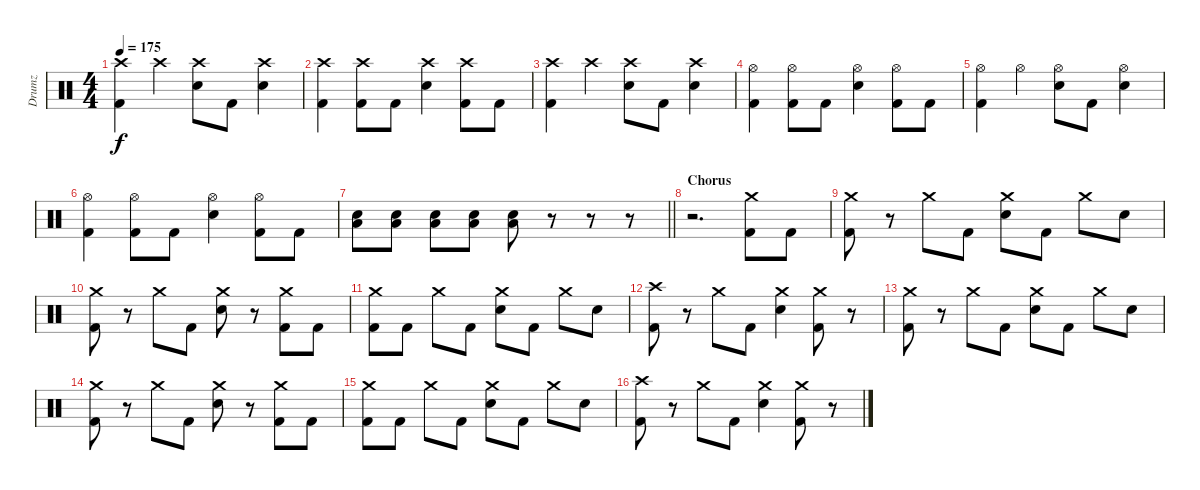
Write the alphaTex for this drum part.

\track ("Drumz" "Drumz") {instrument percussion}
\staff {score}
\articulation defaults
\ts (4 4)
\tempo 175
\clef neutral
\ks c
("Kick (hit) 2" "Crash high (hit)").4{dy f} "Crash high (hit)".4 ("Electric Snare (hit)" "Crash high (hit)").8 "Kick (hit) 2".8 ("Electric Snare (hit)" "Crash high (hit)").4 |
("Kick (hit) 2" "Crash high (hit)").4 ("Kick (hit) 2" "Crash high (hit)").8 "Kick (hit) 2".8 ("Electric Snare (hit)" "Crash high (hit)").4 ("Kick (hit) 2" "Crash high (hit)").8 "Kick (hit) 2".8 |
("Kick (hit) 2" "Crash high (hit)").4 "Crash high (hit)".4 ("Electric Snare (hit)" "Crash high (hit)").8 "Kick (hit) 2".8 ("Electric Snare (hit)" "Crash high (hit)").4 |
("Hi-Hat (open)" "Kick (hit) 2").4 ("Hi-Hat (open)" "Kick (hit) 2").8 "Kick (hit) 2".8 ("Hi-Hat (open)" "Electric Snare (hit)").4 ("Hi-Hat (open)" "Kick (hit) 2").8 "Kick (hit) 2".8 |
("Hi-Hat (open)" "Kick (hit) 2").4 "Hi-Hat (open)".4 ("Hi-Hat (open)" "Snare (hit) 2").8 "Kick (hit) 2".8 ("Hi-Hat (open)" "Snare (hit) 2").4 |
("Hi-Hat (open)" "Kick (hit) 2").4 ("Hi-Hat (open)" "Kick (hit) 2").8 "Kick (hit) 2".8 ("Hi-Hat (open)" "Electric Snare (hit)").4 ("Hi-Hat (open)" "Kick (hit) 2").8 "Kick (hit) 2".8 |
\barLineRight lightlight
("Low Floor Tom (hit)" "Snare (hit) 2").8 ("Low Floor Tom (hit)" "Snare (hit) 2").8 ("Low Floor Tom (hit)" "Snare (hit) 2").8 ("Low Floor Tom (hit)" "Snare (hit) 2").8 ("Low Floor Tom (hit)" "Snare (hit) 2").8 r.8 r.8 r.8 |
\section ("" "Chorus")
r.2{d} ("Crash medium (hit)" "Kick (hit) 2").8 "Kick (hit) 2".8 |
("Crash medium (hit)" "Kick (hit) 2").8 r.8 "Crash medium (hit)".8 "Kick (hit) 2".8 ("Crash medium (hit)" "Snare (hit) 2").8 "Kick (hit) 2".8 "Crash medium (hit)".8 "Snare (hit) 2".8 |
("Crash medium (hit)" "Kick (hit) 2").8 r.8 "Crash medium (hit)".8 "Kick (hit) 2".8 ("Crash medium (hit)" "Snare (hit) 2").8 r.8 ("Crash medium (hit)" "Kick (hit) 2").8 "Kick (hit) 2".8 |
("Crash medium (hit)" "Kick (hit) 2").8 "Kick (hit) 2".8 "Crash medium (hit)".8 "Kick (hit) 2".8 ("Crash medium (hit)" "Snare (hit) 2").8 "Kick (hit) 2".8 "Crash medium (hit)".8 "Snare (hit) 2".8 |
("Kick (hit) 2" "Crash high (hit)").8 r.8 "Crash medium (hit)".8 "Kick (hit) 2".8 ("Crash medium (hit)" "Snare (hit) 2").4 ("Crash medium (hit)" "Kick (hit) 2").8 r.8 |
("Crash medium (hit)" "Kick (hit) 2").8 r.8 "Crash medium (hit)".8 "Kick (hit) 2".8 ("Crash medium (hit)" "Snare (hit) 2").8 "Kick (hit) 2".8 "Crash medium (hit)".8 "Snare (hit) 2".8 |
("Crash medium (hit)" "Kick (hit) 2").8 r.8 "Crash medium (hit)".8 "Kick (hit) 2".8 ("Crash medium (hit)" "Snare (hit) 2").8 r.8 ("Crash medium (hit)" "Kick (hit) 2").8 "Kick (hit) 2".8 |
("Crash medium (hit)" "Kick (hit) 2").8 "Kick (hit) 2".8 "Crash medium (hit)".8 "Kick (hit) 2".8 ("Crash medium (hit)" "Snare (hit) 2").8 "Kick (hit) 2".8 "Crash medium (hit)".8 "Snare (hit) 2".8 |
("Kick (hit) 2" "Crash high (hit)").8 r.8 "Crash medium (hit)".8 "Kick (hit) 2".8 ("Crash medium (hit)" "Snare (hit) 2").4 ("Crash medium (hit)" "Kick (hit) 2").8 r.8
